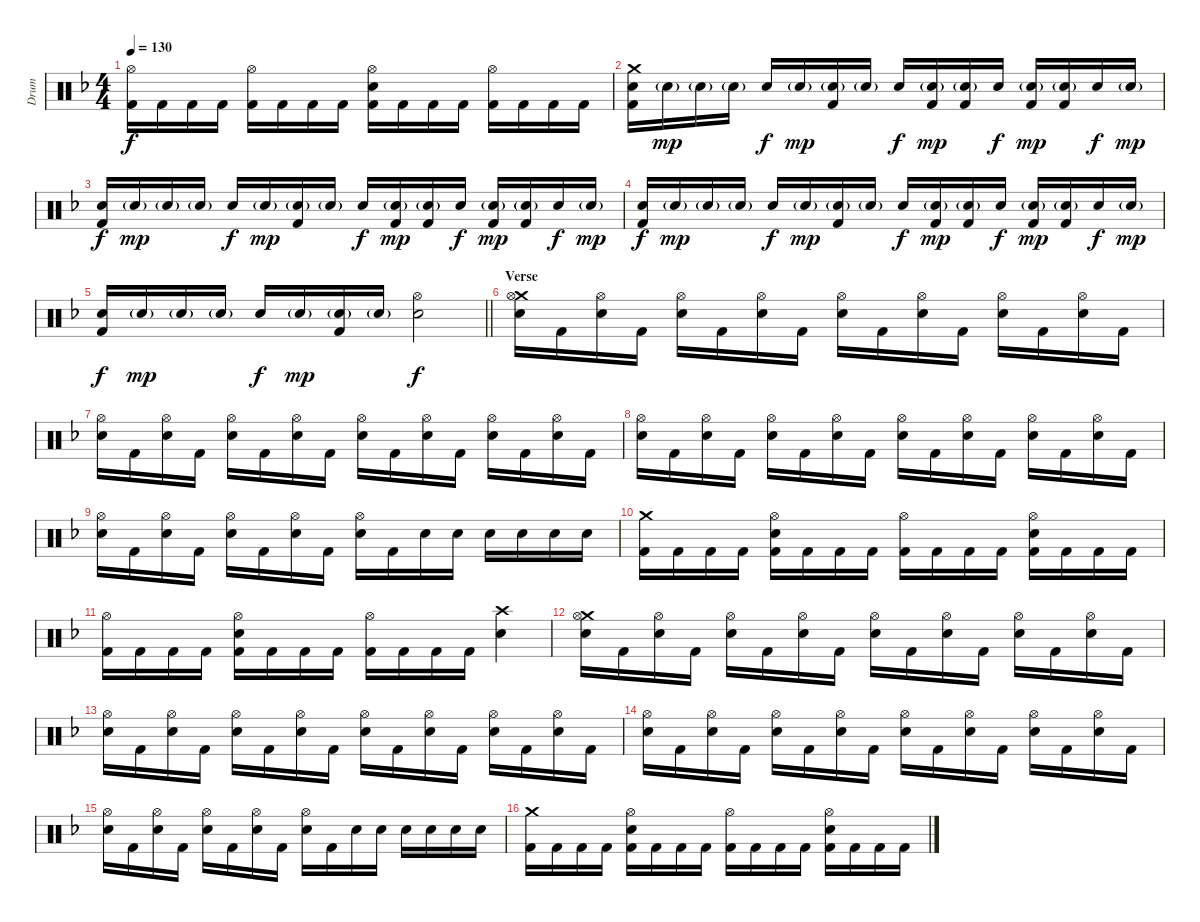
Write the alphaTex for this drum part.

\track ("Drum" "Drum") {instrument percussion}
\staff {score}
\articulation defaults
\ts (4 4)
\tempo 130
\clef neutral
\ks f
("Hi-Hat (open)" "Kick (hit) 2").16{dy f} "Kick (hit) 2".16 "Kick (hit) 2".16 "Kick (hit) 2".16 ("Hi-Hat (open)" "Kick (hit) 2").16 "Kick (hit) 2".16 "Kick (hit) 2".16 "Kick (hit) 2".16 ("Hi-Hat (open)" "Electric Snare (hit)" "Kick (hit) 2").16 "Kick (hit) 2".16 "Kick (hit) 2".16 "Kick (hit) 2".16 ("Hi-Hat (open)" "Kick (hit) 2").16 "Kick (hit) 2".16 "Kick (hit) 2".16 "Kick (hit) 2".16 |
("Crash medium (hit)" "Electric Snare (hit)" "Kick (hit) 2").16 "Electric Snare (hit)"{g}.16{dy mp} "Electric Snare (hit)"{g}.16 "Electric Snare (hit)"{g}.16 "Electric Snare (hit)".16{dy f} "Electric Snare (hit)"{g}.16{dy mp} ("Electric Snare (hit)"{g} "Kick (hit) 2").16 "Electric Snare (hit)"{g}.16 "Electric Snare (hit)".16{dy f} ("Electric Snare (hit)"{g} "Kick (hit) 2").16{dy mp} ("Electric Snare (hit)"{g} "Kick (hit) 2").16 "Electric Snare (hit)".16{dy f} ("Electric Snare (hit)"{g} "Kick (hit) 2").16{dy mp} ("Electric Snare (hit)"{g} "Kick (hit) 2").16 "Electric Snare (hit)".16{dy f} "Electric Snare (hit)"{g}.16{dy mp} |
("Electric Snare (hit)" "Kick (hit) 2").16{dy f} "Electric Snare (hit)"{g}.16{dy mp} "Electric Snare (hit)"{g}.16 "Electric Snare (hit)"{g}.16 "Electric Snare (hit)".16{dy f} "Electric Snare (hit)"{g}.16{dy mp} ("Electric Snare (hit)"{g} "Kick (hit) 2").16 "Electric Snare (hit)"{g}.16 "Electric Snare (hit)".16{dy f} ("Electric Snare (hit)"{g} "Kick (hit) 2").16{dy mp} ("Electric Snare (hit)"{g} "Kick (hit) 2").16 "Electric Snare (hit)".16{dy f} ("Electric Snare (hit)"{g} "Kick (hit) 2").16{dy mp} ("Electric Snare (hit)"{g} "Kick (hit) 2").16 "Electric Snare (hit)".16{dy f} "Electric Snare (hit)"{g}.16{dy mp} |
("Electric Snare (hit)" "Kick (hit) 2").16{dy f} "Electric Snare (hit)"{g}.16{dy mp} "Electric Snare (hit)"{g}.16 "Electric Snare (hit)"{g}.16 "Electric Snare (hit)".16{dy f} "Electric Snare (hit)"{g}.16{dy mp} ("Electric Snare (hit)"{g} "Kick (hit) 2").16 "Electric Snare (hit)"{g}.16 "Electric Snare (hit)".16{dy f} ("Electric Snare (hit)"{g} "Kick (hit) 2").16{dy mp} ("Electric Snare (hit)"{g} "Kick (hit) 2").16 "Electric Snare (hit)".16{dy f} ("Electric Snare (hit)"{g} "Kick (hit) 2").16{dy mp} ("Electric Snare (hit)"{g} "Kick (hit) 2").16 "Electric Snare (hit)".16{dy f} "Electric Snare (hit)"{g}.16{dy mp} |
\barLineRight lightlight
("Electric Snare (hit)" "Kick (hit) 2").16{dy f} "Electric Snare (hit)"{g}.16{dy mp} "Electric Snare (hit)"{g}.16 "Electric Snare (hit)"{g}.16 "Electric Snare (hit)".16{dy f} "Electric Snare (hit)"{g}.16{dy mp} ("Electric Snare (hit)"{g} "Kick (hit) 2").16 "Electric Snare (hit)"{g}.16 ("Hi-Hat (open)" "Electric Snare (hit)").2{dy f} |
\section ("" "Verse")
("Crash medium (hit)" "Hi-Hat (open)" "Electric Snare (hit)").16 "Kick (hit) 2".16 ("Hi-Hat (open)" "Electric Snare (hit)").16 "Kick (hit) 2".16 ("Hi-Hat (open)" "Electric Snare (hit)").16 "Kick (hit) 2".16 ("Hi-Hat (open)" "Electric Snare (hit)").16 "Kick (hit) 2".16 ("Hi-Hat (open)" "Electric Snare (hit)").16 "Kick (hit) 2".16 ("Hi-Hat (open)" "Electric Snare (hit)").16 "Kick (hit) 2".16 ("Hi-Hat (open)" "Electric Snare (hit)").16 "Kick (hit) 2".16 ("Hi-Hat (open)" "Electric Snare (hit)").16 "Kick (hit) 2".16 |
("Hi-Hat (open)" "Electric Snare (hit)").16 "Kick (hit) 2".16 ("Hi-Hat (open)" "Electric Snare (hit)").16 "Kick (hit) 2".16 ("Hi-Hat (open)" "Electric Snare (hit)").16 "Kick (hit) 2".16 ("Hi-Hat (open)" "Electric Snare (hit)").16 "Kick (hit) 2".16 ("Hi-Hat (open)" "Electric Snare (hit)").16 "Kick (hit) 2".16 ("Hi-Hat (open)" "Electric Snare (hit)").16 "Kick (hit) 2".16 ("Hi-Hat (open)" "Electric Snare (hit)").16 "Kick (hit) 2".16 ("Hi-Hat (open)" "Electric Snare (hit)").16 "Kick (hit) 2".16 |
("Hi-Hat (open)" "Electric Snare (hit)").16 "Kick (hit) 2".16 ("Hi-Hat (open)" "Electric Snare (hit)").16 "Kick (hit) 2".16 ("Hi-Hat (open)" "Electric Snare (hit)").16 "Kick (hit) 2".16 ("Hi-Hat (open)" "Electric Snare (hit)").16 "Kick (hit) 2".16 ("Hi-Hat (open)" "Electric Snare (hit)").16 "Kick (hit) 2".16 ("Hi-Hat (open)" "Electric Snare (hit)").16 "Kick (hit) 2".16 ("Hi-Hat (open)" "Electric Snare (hit)").16 "Kick (hit) 2".16 ("Hi-Hat (open)" "Electric Snare (hit)").16 "Kick (hit) 2".16 |
("Hi-Hat (open)" "Electric Snare (hit)").16 "Kick (hit) 2".16 ("Hi-Hat (open)" "Electric Snare (hit)").16 "Kick (hit) 2".16 ("Hi-Hat (open)" "Electric Snare (hit)").16 "Kick (hit) 2".16 ("Hi-Hat (open)" "Electric Snare (hit)").16 "Kick (hit) 2".16 ("Hi-Hat (open)" "Electric Snare (hit)").16 "Kick (hit) 2".16 "Electric Snare (hit)".16 "Electric Snare (hit)".16 "Electric Snare (hit)".16 "Electric Snare (hit)".16 "Electric Snare (hit)".16 "Electric Snare (hit)".16 |
("Crash medium (hit)" "Kick (hit) 2").16 "Kick (hit) 2".16 "Kick (hit) 2".16 "Kick (hit) 2".16 ("Hi-Hat (open)" "Electric Snare (hit)" "Kick (hit) 2").16 "Kick (hit) 2".16 "Kick (hit) 2".16 "Kick (hit) 2".16 ("Hi-Hat (open)" "Kick (hit) 2").16 "Kick (hit) 2".16 "Kick (hit) 2".16 "Kick (hit) 2".16 ("Hi-Hat (open)" "Electric Snare (hit)" "Kick (hit) 2").16 "Kick (hit) 2".16 "Kick (hit) 2".16 "Kick (hit) 2".16 |
("Hi-Hat (open)" "Kick (hit) 2").16 "Kick (hit) 2".16 "Kick (hit) 2".16 "Kick (hit) 2".16 ("Hi-Hat (open)" "Electric Snare (hit)" "Kick (hit) 2").16 "Kick (hit) 2".16 "Kick (hit) 2".16 "Kick (hit) 2".16 ("Hi-Hat (open)" "Kick (hit) 2").16 "Kick (hit) 2".16 "Kick (hit) 2".16 "Kick (hit) 2".16 ("Crash high (hit)" "Electric Snare (hit)").4 |
("Crash medium (hit)" "Hi-Hat (open)" "Electric Snare (hit)").16 "Kick (hit) 2".16 ("Hi-Hat (open)" "Electric Snare (hit)").16 "Kick (hit) 2".16 ("Hi-Hat (open)" "Electric Snare (hit)").16 "Kick (hit) 2".16 ("Hi-Hat (open)" "Electric Snare (hit)").16 "Kick (hit) 2".16 ("Hi-Hat (open)" "Electric Snare (hit)").16 "Kick (hit) 2".16 ("Hi-Hat (open)" "Electric Snare (hit)").16 "Kick (hit) 2".16 ("Hi-Hat (open)" "Electric Snare (hit)").16 "Kick (hit) 2".16 ("Hi-Hat (open)" "Electric Snare (hit)").16 "Kick (hit) 2".16 |
("Hi-Hat (open)" "Electric Snare (hit)").16 "Kick (hit) 2".16 ("Hi-Hat (open)" "Electric Snare (hit)").16 "Kick (hit) 2".16 ("Hi-Hat (open)" "Electric Snare (hit)").16 "Kick (hit) 2".16 ("Hi-Hat (open)" "Electric Snare (hit)").16 "Kick (hit) 2".16 ("Hi-Hat (open)" "Electric Snare (hit)").16 "Kick (hit) 2".16 ("Hi-Hat (open)" "Electric Snare (hit)").16 "Kick (hit) 2".16 ("Hi-Hat (open)" "Electric Snare (hit)").16 "Kick (hit) 2".16 ("Hi-Hat (open)" "Electric Snare (hit)").16 "Kick (hit) 2".16 |
("Hi-Hat (open)" "Electric Snare (hit)").16 "Kick (hit) 2".16 ("Hi-Hat (open)" "Electric Snare (hit)").16 "Kick (hit) 2".16 ("Hi-Hat (open)" "Electric Snare (hit)").16 "Kick (hit) 2".16 ("Hi-Hat (open)" "Electric Snare (hit)").16 "Kick (hit) 2".16 ("Hi-Hat (open)" "Electric Snare (hit)").16 "Kick (hit) 2".16 ("Hi-Hat (open)" "Electric Snare (hit)").16 "Kick (hit) 2".16 ("Hi-Hat (open)" "Electric Snare (hit)").16 "Kick (hit) 2".16 ("Hi-Hat (open)" "Electric Snare (hit)").16 "Kick (hit) 2".16 |
("Hi-Hat (open)" "Electric Snare (hit)").16 "Kick (hit) 2".16 ("Hi-Hat (open)" "Electric Snare (hit)").16 "Kick (hit) 2".16 ("Hi-Hat (open)" "Electric Snare (hit)").16 "Kick (hit) 2".16 ("Hi-Hat (open)" "Electric Snare (hit)").16 "Kick (hit) 2".16 ("Hi-Hat (open)" "Electric Snare (hit)").16 "Kick (hit) 2".16 "Electric Snare (hit)".16 "Electric Snare (hit)".16 "Electric Snare (hit)".16 "Electric Snare (hit)".16 "Electric Snare (hit)".16 "Electric Snare (hit)".16 |
("Crash medium (hit)" "Kick (hit) 2").16 "Kick (hit) 2".16 "Kick (hit) 2".16 "Kick (hit) 2".16 ("Hi-Hat (open)" "Electric Snare (hit)" "Kick (hit) 2").16 "Kick (hit) 2".16 "Kick (hit) 2".16 "Kick (hit) 2".16 ("Hi-Hat (open)" "Kick (hit) 2").16 "Kick (hit) 2".16 "Kick (hit) 2".16 "Kick (hit) 2".16 ("Hi-Hat (open)" "Electric Snare (hit)" "Kick (hit) 2").16 "Kick (hit) 2".16 "Kick (hit) 2".16 "Kick (hit) 2".16
